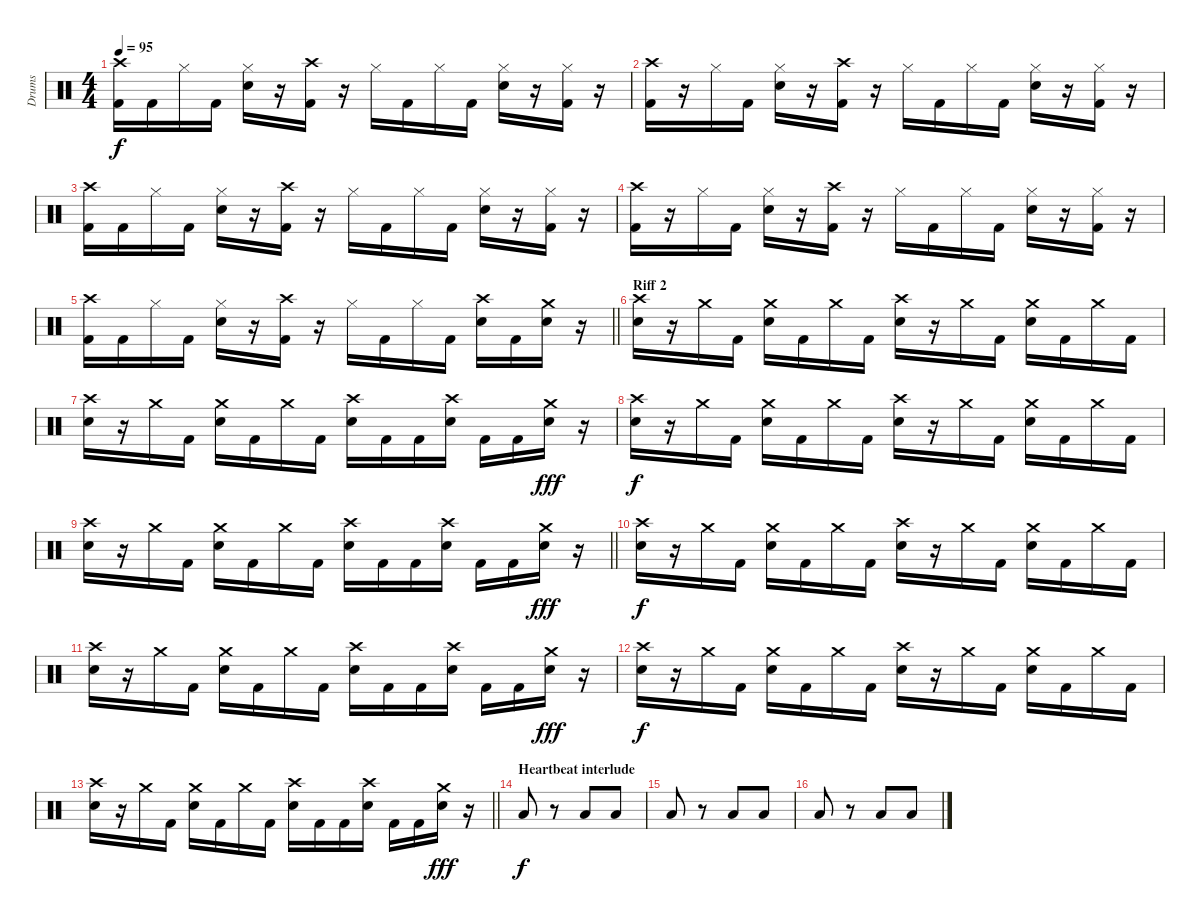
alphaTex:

\track ("Drums" "Drums") {instrument percussion}
\staff {score}
\articulation defaults
\ts (4 4)
\tempo 95
\clef neutral
\ks c
("Crash high (hit)" "Kick (hit) 2").16{dy f} "Kick (hit) 2".16 "Hi-Hat (closed)".16 "Kick (hit) 2".16 ("Hi-Hat (closed)" "Electric Snare (hit)").16 r.16 ("Crash high (hit)" "Kick (hit) 2").16 r.16 "Hi-Hat (closed)".16 "Kick (hit) 2".16 "Hi-Hat (closed)".16 "Kick (hit) 2".16 ("Hi-Hat (closed)" "Electric Snare (hit)").16 r.16 ("Hi-Hat (closed)" "Kick (hit) 2").16 r.16 |
("Crash high (hit)" "Kick (hit) 2").16 r.16 "Hi-Hat (closed)".16 "Kick (hit) 2".16 ("Hi-Hat (closed)" "Electric Snare (hit)").16 r.16 ("Crash high (hit)" "Kick (hit) 2").16 r.16 "Hi-Hat (closed)".16 "Kick (hit) 2".16 "Hi-Hat (closed)".16 "Kick (hit) 2".16 ("Hi-Hat (closed)" "Electric Snare (hit)").16 r.16 ("Hi-Hat (closed)" "Kick (hit) 2").16 r.16 |
("Crash high (hit)" "Kick (hit) 2").16 "Kick (hit) 2".16 "Hi-Hat (closed)".16 "Kick (hit) 2".16 ("Hi-Hat (closed)" "Electric Snare (hit)").16 r.16 ("Crash high (hit)" "Kick (hit) 2").16 r.16 "Hi-Hat (closed)".16 "Kick (hit) 2".16 "Hi-Hat (closed)".16 "Kick (hit) 2".16 ("Hi-Hat (closed)" "Electric Snare (hit)").16 r.16 ("Hi-Hat (closed)" "Kick (hit) 2").16 r.16 |
("Crash high (hit)" "Kick (hit) 2").16 r.16 "Hi-Hat (closed)".16 "Kick (hit) 2".16 ("Hi-Hat (closed)" "Electric Snare (hit)").16 r.16 ("Crash high (hit)" "Kick (hit) 2").16 r.16 "Hi-Hat (closed)".16 "Kick (hit) 2".16 "Hi-Hat (closed)".16 "Kick (hit) 2".16 ("Hi-Hat (closed)" "Electric Snare (hit)").16 r.16 ("Hi-Hat (closed)" "Kick (hit) 2").16 r.16 |
\barLineRight lightlight
("Crash high (hit)" "Kick (hit) 2").16 "Kick (hit) 2".16 "Hi-Hat (closed)".16 "Kick (hit) 2".16 ("Hi-Hat (closed)" "Electric Snare (hit)").16 r.16 ("Crash high (hit)" "Kick (hit) 2").16 r.16 "Hi-Hat (closed)".16 "Kick (hit) 2".16 "Hi-Hat (closed)".16 "Kick (hit) 2".16 ("Crash high (hit)" "Electric Snare (hit)").16 "Kick (hit) 2".16 ("Crash medium (hit)" "Electric Snare (hit)").16 r.16 |
\section ("" "Riff 2")
("Crash high (hit)" "Electric Snare (hit)").16 r.16 "Crash medium (hit)".16 "Kick (hit) 2".16 ("Crash medium (hit)" "Electric Snare (hit)").16 "Kick (hit) 2".16 "Crash medium (hit)".16 "Kick (hit) 2".16 ("Crash high (hit)" "Electric Snare (hit)").16 r.16 "Crash medium (hit)".16 "Kick (hit) 2".16 ("Crash medium (hit)" "Electric Snare (hit)").16 "Kick (hit) 2".16 "Crash medium (hit)".16 "Kick (hit) 2".16 |
("Crash high (hit)" "Electric Snare (hit)").16 r.16 "Crash medium (hit)".16 "Kick (hit) 2".16 ("Crash medium (hit)" "Electric Snare (hit)").16 "Kick (hit) 2".16 "Crash medium (hit)".16 "Kick (hit) 2".16 ("Crash high (hit)" "Electric Snare (hit)").16 "Kick (hit) 2".16 "Kick (hit) 2".16 ("Crash high (hit)" "Electric Snare (hit)").16 "Kick (hit) 2".16 "Kick (hit) 2".16 ("Crash medium (hit)" "Electric Snare (hit)").16{dy fff} r.16 |
("Crash high (hit)" "Electric Snare (hit)").16{dy f} r.16 "Crash medium (hit)".16 "Kick (hit) 2".16 ("Crash medium (hit)" "Electric Snare (hit)").16 "Kick (hit) 2".16 "Crash medium (hit)".16 "Kick (hit) 2".16 ("Crash high (hit)" "Electric Snare (hit)").16 r.16 "Crash medium (hit)".16 "Kick (hit) 2".16 ("Crash medium (hit)" "Electric Snare (hit)").16 "Kick (hit) 2".16 "Crash medium (hit)".16 "Kick (hit) 2".16 |
\barLineRight lightlight
("Crash high (hit)" "Electric Snare (hit)").16 r.16 "Crash medium (hit)".16 "Kick (hit) 2".16 ("Crash medium (hit)" "Electric Snare (hit)").16 "Kick (hit) 2".16 "Crash medium (hit)".16 "Kick (hit) 2".16 ("Crash high (hit)" "Electric Snare (hit)").16 "Kick (hit) 2".16 "Kick (hit) 2".16 ("Crash high (hit)" "Electric Snare (hit)").16 "Kick (hit) 2".16 "Kick (hit) 2".16 ("Crash medium (hit)" "Electric Snare (hit)").16{dy fff} r.16 |
("Crash high (hit)" "Electric Snare (hit)").16{dy f} r.16 "Crash medium (hit)".16 "Kick (hit) 2".16 ("Crash medium (hit)" "Electric Snare (hit)").16 "Kick (hit) 2".16 "Crash medium (hit)".16 "Kick (hit) 2".16 ("Crash high (hit)" "Electric Snare (hit)").16 r.16 "Crash medium (hit)".16 "Kick (hit) 2".16 ("Crash medium (hit)" "Electric Snare (hit)").16 "Kick (hit) 2".16 "Crash medium (hit)".16 "Kick (hit) 2".16 |
("Crash high (hit)" "Electric Snare (hit)").16 r.16 "Crash medium (hit)".16 "Kick (hit) 2".16 ("Crash medium (hit)" "Electric Snare (hit)").16 "Kick (hit) 2".16 "Crash medium (hit)".16 "Kick (hit) 2".16 ("Crash high (hit)" "Electric Snare (hit)").16 "Kick (hit) 2".16 "Kick (hit) 2".16 ("Crash high (hit)" "Electric Snare (hit)").16 "Kick (hit) 2".16 "Kick (hit) 2".16 ("Crash medium (hit)" "Electric Snare (hit)").16{dy fff} r.16 |
("Crash high (hit)" "Electric Snare (hit)").16{dy f} r.16 "Crash medium (hit)".16 "Kick (hit) 2".16 ("Crash medium (hit)" "Electric Snare (hit)").16 "Kick (hit) 2".16 "Crash medium (hit)".16 "Kick (hit) 2".16 ("Crash high (hit)" "Electric Snare (hit)").16 r.16 "Crash medium (hit)".16 "Kick (hit) 2".16 ("Crash medium (hit)" "Electric Snare (hit)").16 "Kick (hit) 2".16 "Crash medium (hit)".16 "Kick (hit) 2".16 |
\barLineRight lightlight
("Crash high (hit)" "Electric Snare (hit)").16 r.16 "Crash medium (hit)".16 "Kick (hit) 2".16 ("Crash medium (hit)" "Electric Snare (hit)").16 "Kick (hit) 2".16 "Crash medium (hit)".16 "Kick (hit) 2".16 ("Crash high (hit)" "Electric Snare (hit)").16 "Kick (hit) 2".16 "Kick (hit) 2".16 ("Crash high (hit)" "Electric Snare (hit)").16 "Kick (hit) 2".16 "Kick (hit) 2".16 ("Crash medium (hit)" "Electric Snare (hit)").16{dy fff} r.16 |
\section ("" "Heartbeat interlude")
"Low Floor Tom (hit)".8{dy f} r.8 "Low Floor Tom (hit)".8 "Low Floor Tom (hit)".8 |
"Low Floor Tom (hit)".8 r.8 "Low Floor Tom (hit)".8 "Low Floor Tom (hit)".8 |
"Low Floor Tom (hit)".8 r.8 "Low Floor Tom (hit)".8 "Low Floor Tom (hit)".8
